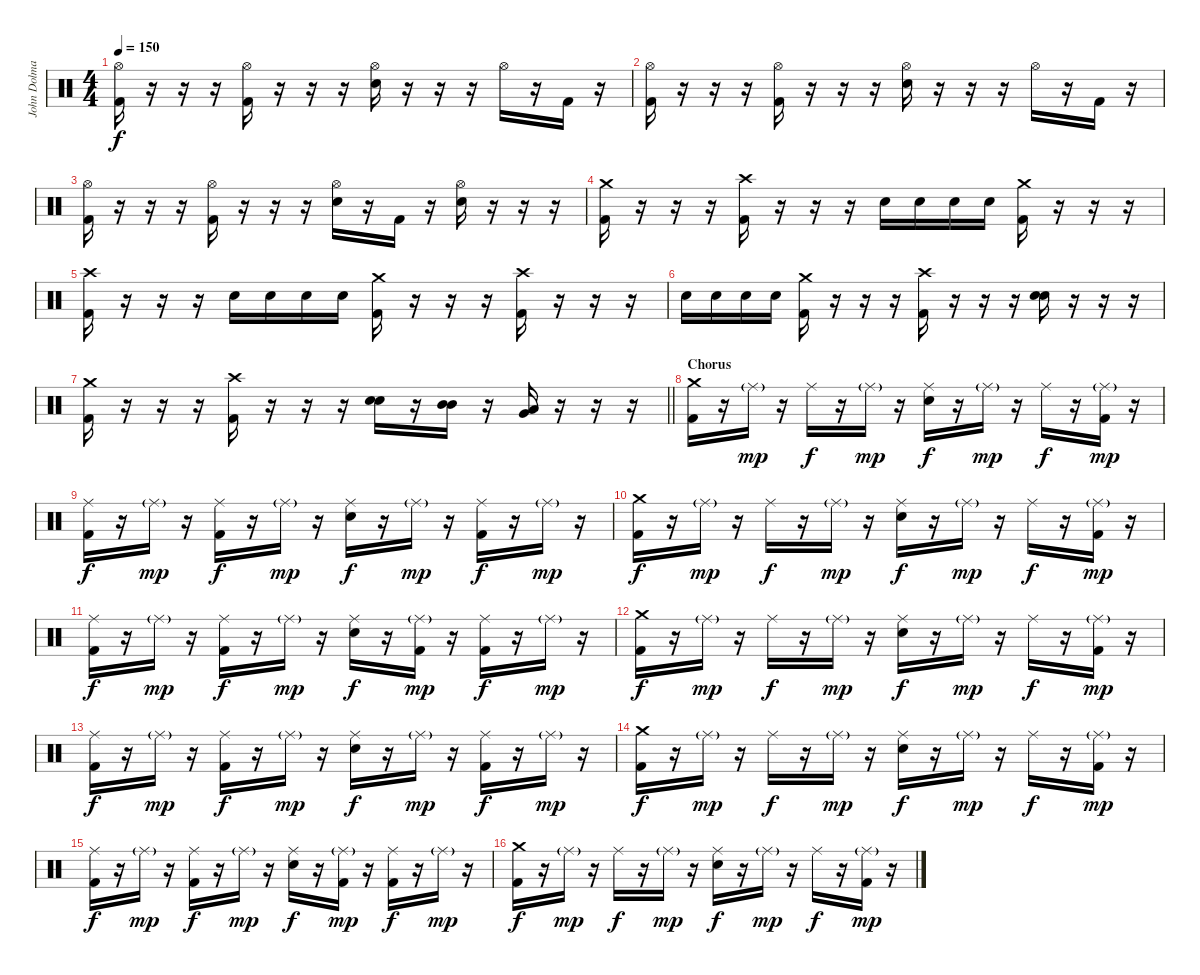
\track ("John Dolmayan" "John Dolma") {instrument percussion}
\staff {score}
\articulation defaults
\ts (4 4)
\tempo 150
\clef neutral
\ks c
("Hi-Hat (open)" "Kick (hit) 2").16{dy f} r.16 r.16 r.16 ("Hi-Hat (open)" "Kick (hit) 2").16 r.16 r.16 r.16 ("Hi-Hat (open)" "Electric Snare (hit)").16 r.16 r.16 r.16 "Hi-Hat (open)".16 r.16 "Kick (hit) 2".16 r.16 |
("Hi-Hat (open)" "Kick (hit) 2").16 r.16 r.16 r.16 ("Hi-Hat (open)" "Kick (hit) 2").16 r.16 r.16 r.16 ("Hi-Hat (open)" "Electric Snare (hit)").16 r.16 r.16 r.16 "Hi-Hat (open)".16 r.16 "Kick (hit) 2".16 r.16 |
("Hi-Hat (open)" "Kick (hit) 2").16 r.16 r.16 r.16 ("Hi-Hat (open)" "Kick (hit) 2").16 r.16 r.16 r.16 ("Hi-Hat (open)" "Electric Snare (hit)").16 r.16 "Kick (hit) 2".16 r.16 ("Hi-Hat (open)" "Electric Snare (hit)").16 r.16 r.16 r.16 |
("Crash medium (hit)" "Kick (hit) 2").16 r.16 r.16 r.16 ("Crash high (hit)" "Kick (hit) 2").16 r.16 r.16 r.16 "Electric Snare (hit)".16 "Electric Snare (hit)".16 "Electric Snare (hit)".16 "Electric Snare (hit)".16 ("Crash medium (hit)" "Kick (hit) 2").16 r.16 r.16 r.16 |
("Crash high (hit)" "Kick (hit) 2").16 r.16 r.16 r.16 "Electric Snare (hit)".16 "Electric Snare (hit)".16 "Electric Snare (hit)".16 "Electric Snare (hit)".16 ("Crash medium (hit)" "Kick (hit) 2").16 r.16 r.16 r.16 ("Crash high (hit)" "Kick (hit) 2").16 r.16 r.16 r.16 |
"Electric Snare (hit)".16 "Electric Snare (hit)".16 "Electric Snare (hit)".16 "Electric Snare (hit)".16 ("Crash medium (hit)" "Kick (hit) 2").16 r.16 r.16 r.16 ("Crash high (hit)" "Kick (hit) 2").16 r.16 r.16 r.16 ("Electric Snare (hit)" "Electric Snare (hit)").16 r.16 r.16 r.16 |
\barLineRight lightlight
("Crash medium (hit)" "Kick (hit) 2").16 r.16 r.16 r.16 ("Crash high (hit)" "Kick (hit) 2").16 r.16 r.16 r.16 ("Electric Snare (hit)" "Electric Snare (hit)").16 r.16 ("Mid Tom (hit)" "Mid Tom (hit)").16 r.16 ("Low Tom (hit)" "Very Low Tom (hit)").16 r.16 r.16 r.16 |
\section ("" "Chorus")
("Crash medium (hit)" "Kick (hit) 2").16 r.16 "Ride (middle)"{g}.16{dy mp} r.16 "Ride (middle)".16{dy f} r.16 "Ride (middle)"{g}.16{dy mp} r.16 ("Ride (middle)" "Electric Snare (hit)").16{dy f} r.16 "Ride (middle)"{g}.16{dy mp} r.16 "Ride (middle)".16{dy f} r.16 ("Ride (middle)"{g} "Kick (hit) 2").16{dy mp} r.16 |
("Ride (middle)" "Kick (hit) 2").16{dy f} r.16 "Ride (middle)"{g}.16{dy mp} r.16 ("Ride (middle)" "Kick (hit) 2").16{dy f} r.16 "Ride (middle)"{g}.16{dy mp} r.16 ("Ride (middle)" "Electric Snare (hit)").16{dy f} r.16 "Ride (middle)"{g}.16{dy mp} r.16 ("Ride (middle)" "Kick (hit) 2").16{dy f} r.16 "Ride (middle)"{g}.16{dy mp} r.16 |
("Crash medium (hit)" "Kick (hit) 2").16{dy f} r.16 "Ride (middle)"{g}.16{dy mp} r.16 "Ride (middle)".16{dy f} r.16 "Ride (middle)"{g}.16{dy mp} r.16 ("Ride (middle)" "Electric Snare (hit)").16{dy f} r.16 "Ride (middle)"{g}.16{dy mp} r.16 "Ride (middle)".16{dy f} r.16 ("Ride (middle)"{g} "Kick (hit) 2").16{dy mp} r.16 |
("Ride (middle)" "Kick (hit) 2").16{dy f} r.16 "Ride (middle)"{g}.16{dy mp} r.16 ("Ride (middle)" "Kick (hit) 2").16{dy f} r.16 "Ride (middle)"{g}.16{dy mp} r.16 ("Ride (middle)" "Electric Snare (hit)").16{dy f} r.16 ("Ride (middle)"{g} "Kick (hit) 2").16{dy mp} r.16 ("Ride (middle)" "Kick (hit) 2").16{dy f} r.16 "Ride (middle)"{g}.16{dy mp} r.16 |
("Crash medium (hit)" "Kick (hit) 2").16{dy f} r.16 "Ride (middle)"{g}.16{dy mp} r.16 "Ride (middle)".16{dy f} r.16 "Ride (middle)"{g}.16{dy mp} r.16 ("Ride (middle)" "Electric Snare (hit)").16{dy f} r.16 "Ride (middle)"{g}.16{dy mp} r.16 "Ride (middle)".16{dy f} r.16 ("Ride (middle)"{g} "Kick (hit) 2").16{dy mp} r.16 |
("Ride (middle)" "Kick (hit) 2").16{dy f} r.16 "Ride (middle)"{g}.16{dy mp} r.16 ("Ride (middle)" "Kick (hit) 2").16{dy f} r.16 "Ride (middle)"{g}.16{dy mp} r.16 ("Ride (middle)" "Electric Snare (hit)").16{dy f} r.16 "Ride (middle)"{g}.16{dy mp} r.16 ("Ride (middle)" "Kick (hit) 2").16{dy f} r.16 "Ride (middle)"{g}.16{dy mp} r.16 |
("Crash medium (hit)" "Kick (hit) 2").16{dy f} r.16 "Ride (middle)"{g}.16{dy mp} r.16 "Ride (middle)".16{dy f} r.16 "Ride (middle)"{g}.16{dy mp} r.16 ("Ride (middle)" "Electric Snare (hit)").16{dy f} r.16 "Ride (middle)"{g}.16{dy mp} r.16 "Ride (middle)".16{dy f} r.16 ("Ride (middle)"{g} "Kick (hit) 2").16{dy mp} r.16 |
("Ride (middle)" "Kick (hit) 2").16{dy f} r.16 "Ride (middle)"{g}.16{dy mp} r.16 ("Ride (middle)" "Kick (hit) 2").16{dy f} r.16 "Ride (middle)"{g}.16{dy mp} r.16 ("Ride (middle)" "Electric Snare (hit)").16{dy f} r.16 ("Ride (middle)"{g} "Kick (hit) 2").16{dy mp} r.16 ("Ride (middle)" "Kick (hit) 2").16{dy f} r.16 "Ride (middle)"{g}.16{dy mp} r.16 |
("Crash medium (hit)" "Kick (hit) 2").16{dy f} r.16 "Ride (middle)"{g}.16{dy mp} r.16 "Ride (middle)".16{dy f} r.16 "Ride (middle)"{g}.16{dy mp} r.16 ("Ride (middle)" "Electric Snare (hit)").16{dy f} r.16 "Ride (middle)"{g}.16{dy mp} r.16 "Ride (middle)".16{dy f} r.16 ("Ride (middle)"{g} "Kick (hit) 2").16{dy mp} r.16
